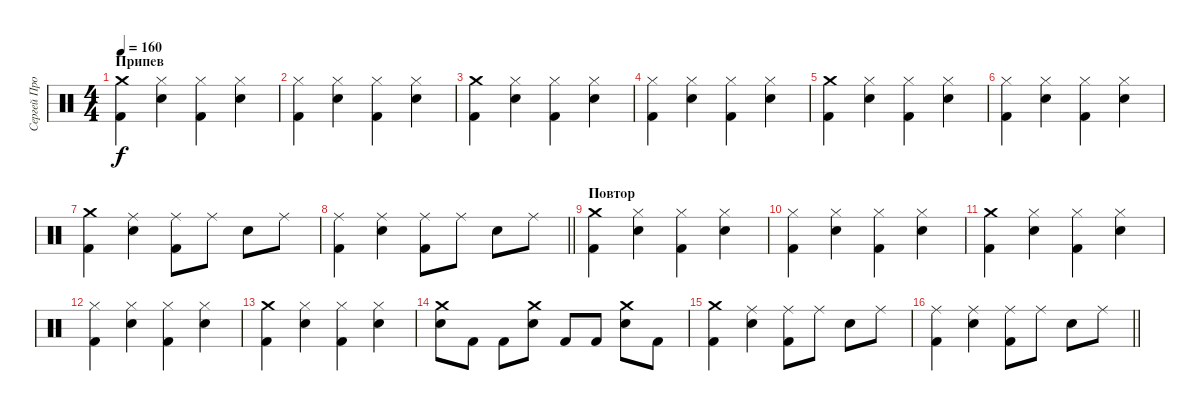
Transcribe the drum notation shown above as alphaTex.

\track ("Сергей Прокофьев" "Сергей Про") {instrument percussion}
\staff {score}
\articulation defaults
\ts (4 4)
\section ("" "Припев")
\tempo 160
\clef neutral
\ks c
("Crash medium (hit)" "Kick (hit) 2").4{dy f} ("Hi-Hat (closed)" "Snare (hit) 2").4 ("Hi-Hat (closed)" "Kick (hit) 2").4 ("Hi-Hat (closed)" "Snare (hit) 2").4 |
("Hi-Hat (closed)" "Kick (hit) 2").4 ("Hi-Hat (closed)" "Snare (hit) 2").4 ("Hi-Hat (closed)" "Kick (hit) 2").4 ("Hi-Hat (closed)" "Snare (hit) 2").4 |
("Crash medium (hit)" "Kick (hit) 2").4 ("Hi-Hat (closed)" "Snare (hit) 2").4 ("Hi-Hat (closed)" "Kick (hit) 2").4 ("Hi-Hat (closed)" "Snare (hit) 2").4 |
("Hi-Hat (closed)" "Kick (hit) 2").4 ("Hi-Hat (closed)" "Snare (hit) 2").4 ("Hi-Hat (closed)" "Kick (hit) 2").4 ("Hi-Hat (closed)" "Snare (hit) 2").4 |
("Crash medium (hit)" "Kick (hit) 2").4 ("Hi-Hat (closed)" "Snare (hit) 2").4 ("Hi-Hat (closed)" "Kick (hit) 2").4 ("Hi-Hat (closed)" "Snare (hit) 2").4 |
("Hi-Hat (closed)" "Kick (hit) 2").4 ("Hi-Hat (closed)" "Snare (hit) 2").4 ("Hi-Hat (closed)" "Kick (hit) 2").4 ("Hi-Hat (closed)" "Snare (hit) 2").4 |
("Crash medium (hit)" "Kick (hit) 2").4 ("Ride (middle)" "Snare (hit) 2").4 ("Ride (middle)" "Kick (hit) 2").8 "Ride (middle)".8 "Snare (hit) 2".8 "Ride (middle)".8 |
\barLineRight lightlight
("Ride (middle)" "Kick (hit) 2").4 ("Ride (middle)" "Snare (hit) 2").4 ("Ride (middle)" "Kick (hit) 2").8 "Ride (middle)".8 "Snare (hit) 2".8 "Ride (middle)".8 |
\section ("" "Повтор")
("Crash medium (hit)" "Kick (hit) 2").4 ("Hi-Hat (closed)" "Snare (hit) 2").4 ("Hi-Hat (closed)" "Kick (hit) 2").4 ("Hi-Hat (closed)" "Snare (hit) 2").4 |
("Hi-Hat (closed)" "Kick (hit) 2").4 ("Hi-Hat (closed)" "Snare (hit) 2").4 ("Hi-Hat (closed)" "Kick (hit) 2").4 ("Hi-Hat (closed)" "Snare (hit) 2").4 |
("Crash medium (hit)" "Kick (hit) 2").4 ("Hi-Hat (closed)" "Snare (hit) 2").4 ("Hi-Hat (closed)" "Kick (hit) 2").4 ("Hi-Hat (closed)" "Snare (hit) 2").4 |
("Hi-Hat (closed)" "Kick (hit) 2").4 ("Hi-Hat (closed)" "Snare (hit) 2").4 ("Hi-Hat (closed)" "Kick (hit) 2").4 ("Hi-Hat (closed)" "Snare (hit) 2").4 |
("Crash medium (hit)" "Kick (hit) 2").4 ("Hi-Hat (closed)" "Snare (hit) 2").4 ("Hi-Hat (closed)" "Kick (hit) 2").4 ("Hi-Hat (closed)" "Snare (hit) 2").4 |
("Crash medium (hit)" "Snare (hit) 2").8 "Kick (hit) 2".8 "Kick (hit) 2".8 ("Crash medium (hit)" "Snare (hit) 2").8 "Kick (hit) 2".8 "Kick (hit) 2".8 ("Crash medium (hit)" "Snare (hit) 2").8 "Kick (hit) 2".8 |
("Crash medium (hit)" "Kick (hit) 2").4 ("Ride (middle)" "Snare (hit) 2").4 ("Ride (middle)" "Kick (hit) 2").8 "Ride (middle)".8 "Snare (hit) 2".8 "Ride (middle)".8 |
\barLineRight lightlight
("Ride (middle)" "Kick (hit) 2").4 ("Ride (middle)" "Snare (hit) 2").4 ("Ride (middle)" "Kick (hit) 2").8 "Ride (middle)".8 "Snare (hit) 2".8 "Ride (middle)".8
